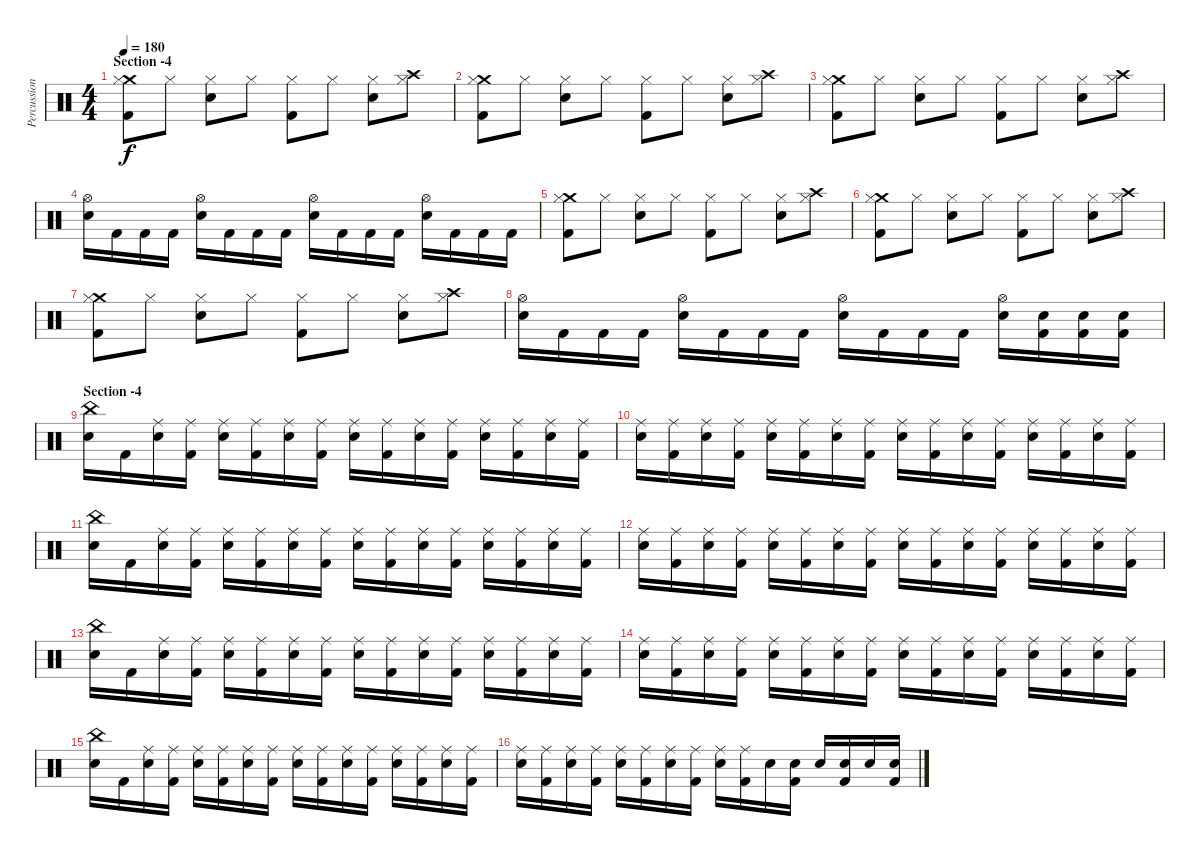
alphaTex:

\track ("Percussion" "Percussion") {instrument percussion}
\staff {score}
\articulation defaults
\ts (4 4)
\section ("" "Section -4")
\tempo 180
\clef neutral
\ks c
("Crash medium (hit)" "Kick (hit) 2" "Hi-Hat (closed)").8{dy f} "Hi-Hat (closed)".8 ("Snare (hit) 2" "Hi-Hat (closed)").8 "Hi-Hat (closed)".8 ("Kick (hit) 2" "Hi-Hat (closed)").8 "Hi-Hat (closed)".8 ("Snare (hit) 2" "Hi-Hat (closed)").8 ("Crash high (hit)" "Hi-Hat (closed)").8 |
("Crash medium (hit)" "Kick (hit) 2" "Hi-Hat (closed)").8 "Hi-Hat (closed)".8 ("Snare (hit) 2" "Hi-Hat (closed)").8 "Hi-Hat (closed)".8 ("Kick (hit) 2" "Hi-Hat (closed)").8 "Hi-Hat (closed)".8 ("Snare (hit) 2" "Hi-Hat (closed)").8 ("Crash high (hit)" "Hi-Hat (closed)").8 |
("Crash medium (hit)" "Kick (hit) 2" "Hi-Hat (closed)").8 "Hi-Hat (closed)".8 ("Snare (hit) 2" "Hi-Hat (closed)").8 "Hi-Hat (closed)".8 ("Kick (hit) 2" "Hi-Hat (closed)").8 "Hi-Hat (closed)".8 ("Snare (hit) 2" "Hi-Hat (closed)").8 ("Crash high (hit)" "Hi-Hat (closed)").8 |
("Hi-Hat (open)" "Snare (hit) 2").16 "Kick (hit) 2".16 "Kick (hit) 2".16 "Kick (hit) 2".16 ("Hi-Hat (open)" "Snare (hit) 2").16 "Kick (hit) 2".16 "Kick (hit) 2".16 "Kick (hit) 2".16 ("Hi-Hat (open)" "Snare (hit) 2").16 "Kick (hit) 2".16 "Kick (hit) 2".16 "Kick (hit) 2".16 ("Hi-Hat (open)" "Snare (hit) 2").16 "Kick (hit) 2".16 "Kick (hit) 2".16 "Kick (hit) 2".16 |
("Crash medium (hit)" "Kick (hit) 2" "Hi-Hat (closed)").8 "Hi-Hat (closed)".8 ("Snare (hit) 2" "Hi-Hat (closed)").8 "Hi-Hat (closed)".8 ("Kick (hit) 2" "Hi-Hat (closed)").8 "Hi-Hat (closed)".8 ("Snare (hit) 2" "Hi-Hat (closed)").8 ("Crash high (hit)" "Hi-Hat (closed)").8 |
("Crash medium (hit)" "Kick (hit) 2" "Hi-Hat (closed)").8 "Hi-Hat (closed)".8 ("Snare (hit) 2" "Hi-Hat (closed)").8 "Hi-Hat (closed)".8 ("Kick (hit) 2" "Hi-Hat (closed)").8 "Hi-Hat (closed)".8 ("Snare (hit) 2" "Hi-Hat (closed)").8 ("Crash high (hit)" "Hi-Hat (closed)").8 |
("Crash medium (hit)" "Kick (hit) 2" "Hi-Hat (closed)").8 "Hi-Hat (closed)".8 ("Snare (hit) 2" "Hi-Hat (closed)").8 "Hi-Hat (closed)".8 ("Kick (hit) 2" "Hi-Hat (closed)").8 "Hi-Hat (closed)".8 ("Snare (hit) 2" "Hi-Hat (closed)").8 ("Crash high (hit)" "Hi-Hat (closed)").8 |
("Hi-Hat (open)" "Snare (hit) 2").16 "Kick (hit) 2".16 "Kick (hit) 2".16 "Kick (hit) 2".16 ("Hi-Hat (open)" "Snare (hit) 2").16 "Kick (hit) 2".16 "Kick (hit) 2".16 "Kick (hit) 2".16 ("Hi-Hat (open)" "Snare (hit) 2").16 "Kick (hit) 2".16 "Kick (hit) 2".16 "Kick (hit) 2".16 ("Hi-Hat (open)" "Snare (hit) 2").16 ("Electric Snare (hit)" "Kick (hit) 2").16 ("Electric Snare (hit)" "Kick (hit) 2").16 ("Electric Snare (hit)" "Kick (hit) 2").16 |
\section ("" "Section -4")
("China (hit)" "Snare (hit) 2").16 "Kick (hit) 2".16 ("Ride (middle)" "Snare (hit) 2").16 ("Ride (middle)" "Kick (hit) 2").16 ("Ride (middle)" "Snare (hit) 2").16 ("Ride (middle)" "Kick (hit) 2").16 ("Ride (middle)" "Snare (hit) 2").16 ("Ride (middle)" "Kick (hit) 2").16 ("Ride (middle)" "Snare (hit) 2").16 ("Ride (middle)" "Kick (hit) 2").16 ("Ride (middle)" "Snare (hit) 2").16 ("Ride (middle)" "Kick (hit) 2").16 ("Ride (middle)" "Snare (hit) 2").16 ("Ride (middle)" "Kick (hit) 2").16 ("Ride (middle)" "Snare (hit) 2").16 ("Ride (middle)" "Kick (hit) 2").16 |
("Ride (middle)" "Snare (hit) 2").16 ("Ride (middle)" "Kick (hit) 2").16 ("Ride (middle)" "Snare (hit) 2").16 ("Ride (middle)" "Kick (hit) 2").16 ("Ride (middle)" "Snare (hit) 2").16 ("Ride (middle)" "Kick (hit) 2").16 ("Ride (middle)" "Snare (hit) 2").16 ("Ride (middle)" "Kick (hit) 2").16 ("Ride (middle)" "Snare (hit) 2").16 ("Ride (middle)" "Kick (hit) 2").16 ("Ride (middle)" "Snare (hit) 2").16 ("Ride (middle)" "Kick (hit) 2").16 ("Ride (middle)" "Snare (hit) 2").16 ("Ride (middle)" "Kick (hit) 2").16 ("Ride (middle)" "Snare (hit) 2").16 ("Ride (middle)" "Kick (hit) 2").16 |
("China (hit)" "Snare (hit) 2").16 "Kick (hit) 2".16 ("Ride (middle)" "Snare (hit) 2").16 ("Ride (middle)" "Kick (hit) 2").16 ("Ride (middle)" "Snare (hit) 2").16 ("Ride (middle)" "Kick (hit) 2").16 ("Ride (middle)" "Snare (hit) 2").16 ("Ride (middle)" "Kick (hit) 2").16 ("Ride (middle)" "Snare (hit) 2").16 ("Ride (middle)" "Kick (hit) 2").16 ("Ride (middle)" "Snare (hit) 2").16 ("Ride (middle)" "Kick (hit) 2").16 ("Ride (middle)" "Snare (hit) 2").16 ("Ride (middle)" "Kick (hit) 2").16 ("Ride (middle)" "Snare (hit) 2").16 ("Ride (middle)" "Kick (hit) 2").16 |
("Ride (middle)" "Snare (hit) 2").16 ("Ride (middle)" "Kick (hit) 2").16 ("Ride (middle)" "Snare (hit) 2").16 ("Ride (middle)" "Kick (hit) 2").16 ("Ride (middle)" "Snare (hit) 2").16 ("Ride (middle)" "Kick (hit) 2").16 ("Ride (middle)" "Snare (hit) 2").16 ("Ride (middle)" "Kick (hit) 2").16 ("Ride (middle)" "Snare (hit) 2").16 ("Ride (middle)" "Kick (hit) 2").16 ("Ride (middle)" "Snare (hit) 2").16 ("Ride (middle)" "Kick (hit) 2").16 ("Ride (middle)" "Snare (hit) 2").16 ("Ride (middle)" "Kick (hit) 2").16 ("Ride (middle)" "Snare (hit) 2").16 ("Ride (middle)" "Kick (hit) 2").16 |
("China (hit)" "Snare (hit) 2").16 "Kick (hit) 2".16 ("Ride (middle)" "Snare (hit) 2").16 ("Ride (middle)" "Kick (hit) 2").16 ("Ride (middle)" "Snare (hit) 2").16 ("Ride (middle)" "Kick (hit) 2").16 ("Ride (middle)" "Snare (hit) 2").16 ("Ride (middle)" "Kick (hit) 2").16 ("Ride (middle)" "Snare (hit) 2").16 ("Ride (middle)" "Kick (hit) 2").16 ("Ride (middle)" "Snare (hit) 2").16 ("Ride (middle)" "Kick (hit) 2").16 ("Ride (middle)" "Snare (hit) 2").16 ("Ride (middle)" "Kick (hit) 2").16 ("Ride (middle)" "Snare (hit) 2").16 ("Ride (middle)" "Kick (hit) 2").16 |
("Ride (middle)" "Snare (hit) 2").16 ("Ride (middle)" "Kick (hit) 2").16 ("Ride (middle)" "Snare (hit) 2").16 ("Ride (middle)" "Kick (hit) 2").16 ("Ride (middle)" "Snare (hit) 2").16 ("Ride (middle)" "Kick (hit) 2").16 ("Ride (middle)" "Snare (hit) 2").16 ("Ride (middle)" "Kick (hit) 2").16 ("Ride (middle)" "Snare (hit) 2").16 ("Ride (middle)" "Kick (hit) 2").16 ("Ride (middle)" "Snare (hit) 2").16 ("Ride (middle)" "Kick (hit) 2").16 ("Ride (middle)" "Snare (hit) 2").16 ("Ride (middle)" "Kick (hit) 2").16 ("Ride (middle)" "Snare (hit) 2").16 ("Ride (middle)" "Kick (hit) 2").16 |
("China (hit)" "Snare (hit) 2").16 "Kick (hit) 2".16 ("Ride (middle)" "Snare (hit) 2").16 ("Ride (middle)" "Kick (hit) 2").16 ("Ride (middle)" "Snare (hit) 2").16 ("Ride (middle)" "Kick (hit) 2").16 ("Ride (middle)" "Snare (hit) 2").16 ("Ride (middle)" "Kick (hit) 2").16 ("Ride (middle)" "Snare (hit) 2").16 ("Ride (middle)" "Kick (hit) 2").16 ("Ride (middle)" "Snare (hit) 2").16 ("Ride (middle)" "Kick (hit) 2").16 ("Ride (middle)" "Snare (hit) 2").16 ("Ride (middle)" "Kick (hit) 2").16 ("Ride (middle)" "Snare (hit) 2").16 ("Ride (middle)" "Kick (hit) 2").16 |
("Ride (middle)" "Snare (hit) 2").16 ("Ride (middle)" "Kick (hit) 2").16 ("Ride (middle)" "Snare (hit) 2").16 ("Ride (middle)" "Kick (hit) 2").16 ("Ride (middle)" "Snare (hit) 2").16 ("Ride (middle)" "Kick (hit) 2").16 ("Ride (middle)" "Snare (hit) 2").16 ("Ride (middle)" "Kick (hit) 2").16 ("Ride (middle)" "Snare (hit) 2").16 ("Ride (middle)" "Kick (hit) 2").16 "Electric Snare (hit)".16 ("Electric Snare (hit)" "Kick (hit) 2").16 "Electric Snare (hit)".16 ("Electric Snare (hit)" "Kick (hit) 2").16 "Electric Snare (hit)".16 ("Electric Snare (hit)" "Kick (hit) 2").16
